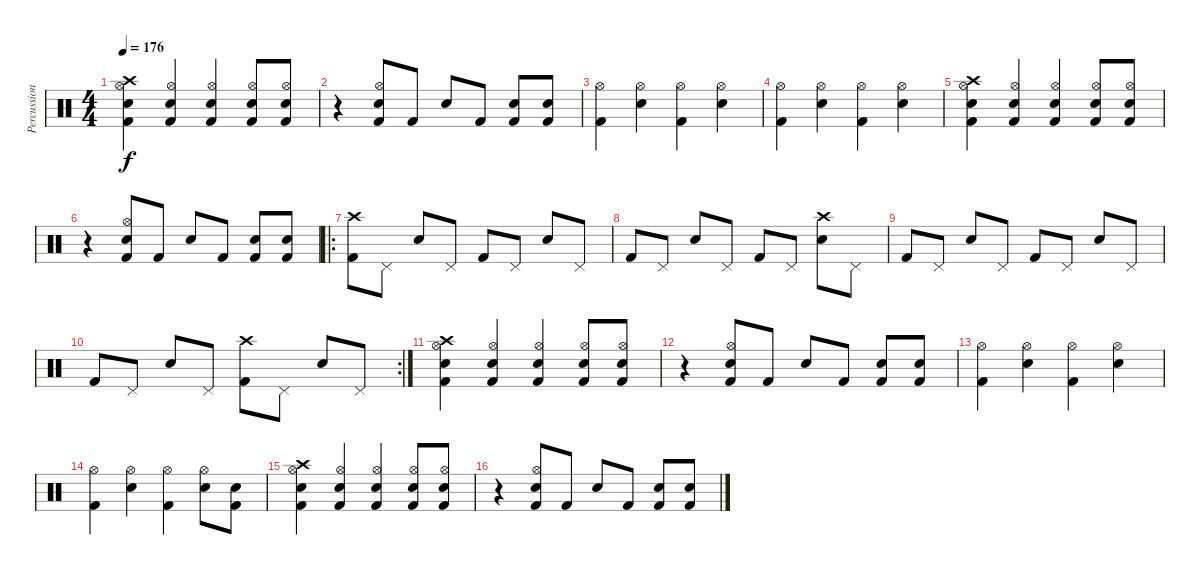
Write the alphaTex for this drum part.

\track ("Percussion" "Percussion") {instrument percussion}
\staff {score}
\articulation defaults
\ts (4 4)
\tempo 176
\clef neutral
\ks c
("Crash high (hit)" "Snare (hit) 2" "Hi-Hat (open)" "Kick (hit) 2").4{dy f} ("Snare (hit) 2" "Hi-Hat (open)" "Kick (hit) 2").4 ("Snare (hit) 2" "Hi-Hat (open)" "Kick (hit) 2").4 ("Snare (hit) 2" "Hi-Hat (open)" "Kick (hit) 2").8 ("Snare (hit) 2" "Hi-Hat (open)" "Kick (hit) 2").8 |
r.4 ("Snare (hit) 2" "Hi-Hat (open)" "Kick (hit) 2").8 "Kick (hit) 2".8 "Snare (hit) 2".8 "Kick (hit) 2".8 ("Snare (hit) 2" "Kick (hit) 2").8 ("Snare (hit) 2" "Kick (hit) 2").8 |
("Hi-Hat (open)" "Kick (hit) 2").4 ("Hi-Hat (open)" "Snare (hit) 2").4 ("Hi-Hat (open)" "Kick (hit) 2").4 ("Hi-Hat (open)" "Snare (hit) 2").4 |
("Hi-Hat (open)" "Kick (hit) 2").4 ("Hi-Hat (open)" "Snare (hit) 2").4 ("Hi-Hat (open)" "Kick (hit) 2").4 ("Hi-Hat (open)" "Snare (hit) 2").4 |
("Crash high (hit)" "Snare (hit) 2" "Hi-Hat (open)" "Kick (hit) 2").4 ("Snare (hit) 2" "Hi-Hat (open)" "Kick (hit) 2").4 ("Snare (hit) 2" "Hi-Hat (open)" "Kick (hit) 2").4 ("Snare (hit) 2" "Hi-Hat (open)" "Kick (hit) 2").8 ("Snare (hit) 2" "Hi-Hat (open)" "Kick (hit) 2").8 |
r.4 ("Snare (hit) 2" "Hi-Hat (open)" "Kick (hit) 2").8 "Kick (hit) 2".8 "Snare (hit) 2".8 "Kick (hit) 2".8 ("Snare (hit) 2" "Kick (hit) 2").8 ("Snare (hit) 2" "Kick (hit) 2").8 |
\ro
("Crash high (hit)" "Kick (hit) 2").8 "Pedal Hi-Hat (hit)".8 "Snare (hit) 2".8 "Pedal Hi-Hat (hit)".8 "Kick (hit) 2".8 "Pedal Hi-Hat (hit)".8 "Snare (hit) 2".8 "Pedal Hi-Hat (hit)".8 |
"Kick (hit) 2".8 "Pedal Hi-Hat (hit)".8 "Snare (hit) 2".8 "Pedal Hi-Hat (hit)".8 "Kick (hit) 2".8 "Pedal Hi-Hat (hit)".8 ("Crash high (hit)" "Snare (hit) 2").8 "Pedal Hi-Hat (hit)".8 |
"Kick (hit) 2".8 "Pedal Hi-Hat (hit)".8 "Snare (hit) 2".8 "Pedal Hi-Hat (hit)".8 "Kick (hit) 2".8 "Pedal Hi-Hat (hit)".8 "Snare (hit) 2".8 "Pedal Hi-Hat (hit)".8 |
\rc 2 "Kick (hit) 2".8 "Pedal Hi-Hat (hit)".8 "Snare (hit) 2".8 "Pedal Hi-Hat (hit)".8
("Crash high (hit)" "Kick (hit) 2").8 "Pedal Hi-Hat (hit)".8 "Snare (hit) 2".8 "Pedal Hi-Hat (hit)".8 |
("Crash high (hit)" "Snare (hit) 2" "Hi-Hat (open)" "Kick (hit) 2").4 ("Snare (hit) 2" "Hi-Hat (open)" "Kick (hit) 2").4 ("Snare (hit) 2" "Hi-Hat (open)" "Kick (hit) 2").4 ("Snare (hit) 2" "Hi-Hat (open)" "Kick (hit) 2").8 ("Snare (hit) 2" "Hi-Hat (open)" "Kick (hit) 2").8 |
r.4 ("Snare (hit) 2" "Hi-Hat (open)" "Kick (hit) 2").8 "Kick (hit) 2".8 "Snare (hit) 2".8 "Kick (hit) 2".8 ("Snare (hit) 2" "Kick (hit) 2").8 ("Snare (hit) 2" "Kick (hit) 2").8 |
("Hi-Hat (open)" "Kick (hit) 2").4 ("Hi-Hat (open)" "Snare (hit) 2").4 ("Hi-Hat (open)" "Kick (hit) 2").4 ("Hi-Hat (open)" "Snare (hit) 2").4 |
("Hi-Hat (open)" "Kick (hit) 2").4 ("Hi-Hat (open)" "Snare (hit) 2").4 ("Hi-Hat (open)" "Kick (hit) 2").4 ("Hi-Hat (open)" "Snare (hit) 2").8 ("Snare (hit) 2" "Kick (hit) 2").8 |
("Crash high (hit)" "Snare (hit) 2" "Hi-Hat (open)" "Kick (hit) 2").4 ("Snare (hit) 2" "Hi-Hat (open)" "Kick (hit) 2").4 ("Snare (hit) 2" "Hi-Hat (open)" "Kick (hit) 2").4 ("Snare (hit) 2" "Hi-Hat (open)" "Kick (hit) 2").8 ("Snare (hit) 2" "Hi-Hat (open)" "Kick (hit) 2").8 |
r.4 ("Snare (hit) 2" "Hi-Hat (open)" "Kick (hit) 2").8 "Kick (hit) 2".8 "Snare (hit) 2".8 "Kick (hit) 2".8 ("Snare (hit) 2" "Kick (hit) 2").8 ("Snare (hit) 2" "Kick (hit) 2").8
